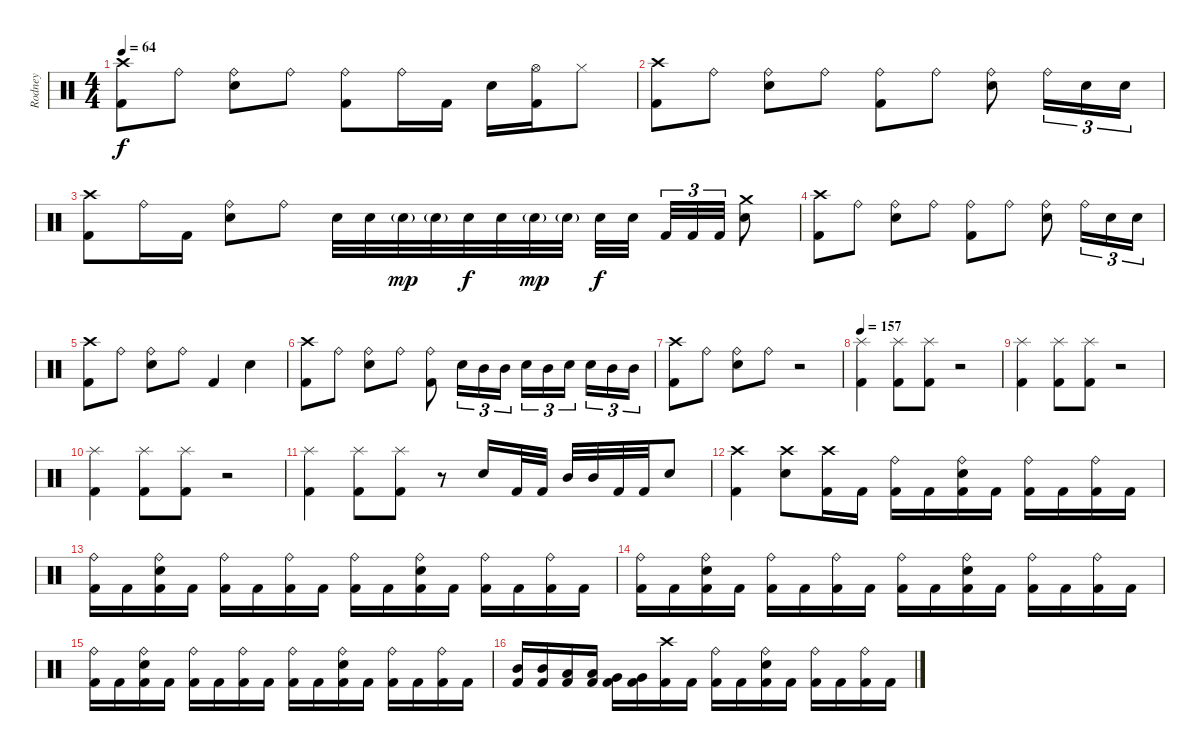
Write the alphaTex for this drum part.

\track ("Rodney" "Rodney") {instrument percussion}
\staff {score}
\articulation defaults
\ts (4 4)
\tempo 64
\clef neutral
\ks c
("Crash high (hit)" "Kick (hit) 2").8{dy f} "Ride (bell)".8 ("Ride (bell)" "Snare (hit) 2").8 "Ride (bell)".8 ("Ride (bell)" "Kick (hit) 2").8 "Ride (bell)".16 "Kick (hit) 2".16 "Snare (hit) 2".16 ("Hi-Hat (open)" "Kick (hit) 2").16 "Hi-Hat (closed)".8 |
("Crash high (hit)" "Kick (hit) 2").8 "Ride (bell)".8 ("Ride (bell)" "Snare (hit) 2").8 "Ride (bell)".8 ("Ride (bell)" "Kick (hit) 2").8 "Ride (bell)".8 ("Ride (bell)" "Snare (hit) 2").8 "Ride (bell)".16{tu (3 2)} "Snare (hit) 2".16{tu (3 2)} "Snare (hit) 2".16{tu (3 2)} |
("Crash high (hit)" "Kick (hit) 2").8 "Ride (bell)".16 "Kick (hit) 2".16 ("Ride (bell)" "Snare (hit) 2").8 "Ride (bell)".8 "Snare (hit) 2".32 "Snare (hit) 2".32 "Snare (hit) 2"{g}.32{dy mp} "Snare (hit) 2"{g}.32 "Snare (hit) 2".32{dy f} "Snare (hit) 2".32 "Snare (hit) 2"{g}.32{dy mp} "Snare (hit) 2"{g}.32 "Snare (hit) 2".32{dy f} "Snare (hit) 2".32 "Kick (hit) 2".32{tu (3 2)} "Kick (hit) 2".32{tu (3 2)} "Kick (hit) 2".32{tu (3 2)} ("Crash medium (hit)" "Snare (hit) 2").8 |
("Crash high (hit)" "Kick (hit) 2").8 "Ride (bell)".8 ("Ride (bell)" "Snare (hit) 2").8 "Ride (bell)".8 ("Ride (bell)" "Kick (hit) 2").8 "Ride (bell)".8 ("Ride (bell)" "Snare (hit) 2").8 "Ride (bell)".16{tu (3 2)} "Snare (hit) 2".16{tu (3 2)} "Snare (hit) 2".16{tu (3 2)} |
("Crash high (hit)" "Kick (hit) 2").8 "Ride (bell)".8 ("Ride (bell)" "Snare (hit) 2").8 "Ride (bell)".8 "Kick (hit) 2".4 "Snare (hit) 2".4 |
("Crash high (hit)" "Kick (hit) 2").8 "Ride (bell)".8 ("Ride (bell)" "Snare (hit) 2").8 "Ride (bell)".8 ("Ride (bell)" "Kick (hit) 2").8 "Snare (hit) 2".16{tu (3 2)} "Mid Tom (hit)".16{tu (3 2)} "Mid Tom (hit)".16{tu (3 2)} "Snare (hit) 2".16{tu (3 2)} "Mid Tom (hit)".16{tu (3 2)} "Snare (hit) 2".16{tu (3 2)} "Snare (hit) 2".16{tu (3 2)} "Mid Tom (hit)".16{tu (3 2)} "Mid Tom (hit)".16{tu (3 2)} |
("Crash high (hit)" "Kick (hit) 2").8 "Ride (bell)".8 ("Ride (bell)" "Snare (hit) 2").8 "Ride (bell)".8 r.2 |
\tempo 157
("Splash (hit)" "Kick (hit) 2").4 ("Splash (hit)" "Kick (hit) 2").8 ("Splash (hit)" "Kick (hit) 2").8 r.2 |
("Splash (hit)" "Kick (hit) 2").4 ("Splash (hit)" "Kick (hit) 2").8 ("Splash (hit)" "Kick (hit) 2").8 r.2 |
("Splash (hit)" "Kick (hit) 2").4 ("Splash (hit)" "Kick (hit) 2").8 ("Splash (hit)" "Kick (hit) 2").8 r.2 |
("Splash (hit)" "Kick (hit) 2").4 ("Splash (hit)" "Kick (hit) 2").8 ("Splash (hit)" "Kick (hit) 2").8 r.8 "Snare (hit) 2".16 "Kick (hit) 2".32 "Kick (hit) 2".32 "Mid Tom (hit)".32 "Mid Tom (hit)".32 "Kick (hit) 2".32 "Kick (hit) 2".32 "Snare (hit) 2".8 |
("Crash high (hit)" "Kick (hit) 2").4 ("Crash high (hit)" "Snare (hit) 2").8 ("Crash high (hit)" "Kick (hit) 2").16 "Kick (hit) 2".16 ("Ride (bell)" "Kick (hit) 2").16 "Kick (hit) 2".16 ("Ride (bell)" "Snare (hit) 2" "Kick (hit) 2").16 "Kick (hit) 2".16 ("Ride (bell)" "Kick (hit) 2").16 "Kick (hit) 2".16 ("Ride (bell)" "Kick (hit) 2").16 "Kick (hit) 2".16 |
("Ride (bell)" "Kick (hit) 2").16 "Kick (hit) 2".16 ("Ride (bell)" "Snare (hit) 2" "Kick (hit) 2").16 "Kick (hit) 2".16 ("Ride (bell)" "Kick (hit) 2").16 "Kick (hit) 2".16 ("Ride (bell)" "Kick (hit) 2").16 "Kick (hit) 2".16 ("Ride (bell)" "Kick (hit) 2").16 "Kick (hit) 2".16 ("Ride (bell)" "Snare (hit) 2" "Kick (hit) 2").16 "Kick (hit) 2".16 ("Ride (bell)" "Kick (hit) 2").16 "Kick (hit) 2".16 ("Ride (bell)" "Kick (hit) 2").16 "Kick (hit) 2".16 |
("Ride (bell)" "Kick (hit) 2").16 "Kick (hit) 2".16 ("Ride (bell)" "Snare (hit) 2" "Kick (hit) 2").16 "Kick (hit) 2".16 ("Ride (bell)" "Kick (hit) 2").16 "Kick (hit) 2".16 ("Ride (bell)" "Kick (hit) 2").16 "Kick (hit) 2".16 ("Ride (bell)" "Kick (hit) 2").16 "Kick (hit) 2".16 ("Ride (bell)" "Snare (hit) 2" "Kick (hit) 2").16 "Kick (hit) 2".16 ("Ride (bell)" "Kick (hit) 2").16 "Kick (hit) 2".16 ("Ride (bell)" "Kick (hit) 2").16 "Kick (hit) 2".16 |
("Ride (bell)" "Kick (hit) 2").16 "Kick (hit) 2".16 ("Ride (bell)" "Snare (hit) 2" "Kick (hit) 2").16 "Kick (hit) 2".16 ("Ride (bell)" "Kick (hit) 2").16 "Kick (hit) 2".16 ("Ride (bell)" "Kick (hit) 2").16 "Kick (hit) 2".16 ("Ride (bell)" "Kick (hit) 2").16 "Kick (hit) 2".16 ("Ride (bell)" "Snare (hit) 2" "Kick (hit) 2").16 "Kick (hit) 2".16 ("Ride (bell)" "Kick (hit) 2").16 "Kick (hit) 2".16 ("Ride (bell)" "Kick (hit) 2").16 "Kick (hit) 2".16 |
("Mid Tom (hit)" "Kick (hit) 2").16 ("Mid Tom (hit)" "Kick (hit) 2").16 ("Low Tom (hit)" "Kick (hit) 2").16 ("Low Tom (hit)" "Kick (hit) 2").16 ("Very Low Tom (hit)" "Kick (hit) 2").16 ("Very Low Tom (hit)" "Kick (hit) 2").16 ("Crash high (hit)" "Kick (hit) 2").16 "Kick (hit) 2".16 ("Ride (bell)" "Kick (hit) 2").16 "Kick (hit) 2".16 ("Ride (bell)" "Snare (hit) 2" "Kick (hit) 2").16 "Kick (hit) 2".16 ("Ride (bell)" "Kick (hit) 2").16 "Kick (hit) 2".16 ("Ride (bell)" "Kick (hit) 2").16 "Kick (hit) 2".16
